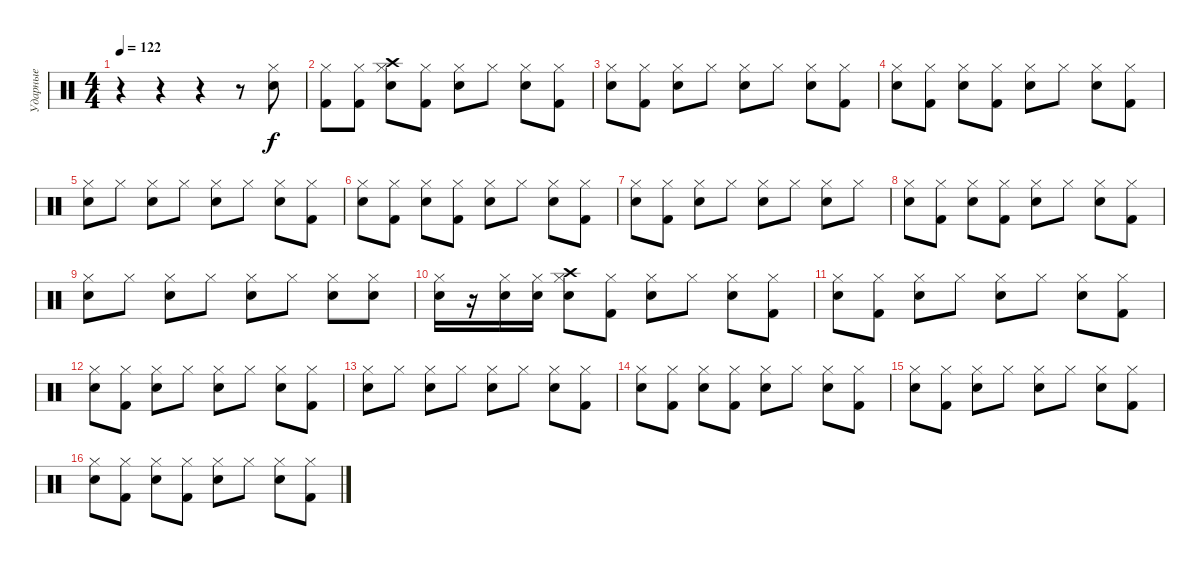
\track ("Ударные" "Ударные") {instrument percussion}
\staff {score}
\articulation defaults
\ts (4 4)
\tempo 122
\clef neutral
\ks c
r.4{dy f} r.4 r.4 r.8 ("Hi-Hat (closed)" "Snare (hit) 2").8 |
("Hi-Hat (closed)" "Kick (hit) 2").8 ("Hi-Hat (closed)" "Kick (hit) 2").8 ("Crash high (hit)" "Hi-Hat (closed)" "Snare (hit) 2").8 ("Hi-Hat (closed)" "Kick (hit) 2").8 ("Hi-Hat (closed)" "Snare (hit) 2").8 "Hi-Hat (closed)".8 ("Hi-Hat (closed)" "Snare (hit) 2").8 ("Hi-Hat (closed)" "Kick (hit) 2").8 |
("Hi-Hat (closed)" "Snare (hit) 2").8 ("Hi-Hat (closed)" "Kick (hit) 2").8 ("Hi-Hat (closed)" "Snare (hit) 2").8 "Hi-Hat (closed)".8 ("Hi-Hat (closed)" "Snare (hit) 2").8 "Hi-Hat (closed)".8 ("Hi-Hat (closed)" "Snare (hit) 2").8 ("Hi-Hat (closed)" "Kick (hit) 2").8 |
("Hi-Hat (closed)" "Snare (hit) 2").8 ("Hi-Hat (closed)" "Kick (hit) 2").8 ("Hi-Hat (closed)" "Snare (hit) 2").8 ("Hi-Hat (closed)" "Kick (hit) 2").8 ("Hi-Hat (closed)" "Snare (hit) 2").8 "Hi-Hat (closed)".8 ("Hi-Hat (closed)" "Snare (hit) 2").8 ("Hi-Hat (closed)" "Kick (hit) 2").8 |
("Hi-Hat (closed)" "Snare (hit) 2").8 "Hi-Hat (closed)".8 ("Hi-Hat (closed)" "Snare (hit) 2").8 "Hi-Hat (closed)".8 ("Hi-Hat (closed)" "Snare (hit) 2").8 "Hi-Hat (closed)".8 ("Hi-Hat (closed)" "Snare (hit) 2").8 ("Hi-Hat (closed)" "Kick (hit) 2").8 |
("Hi-Hat (closed)" "Snare (hit) 2").8 ("Hi-Hat (closed)" "Kick (hit) 2").8 ("Hi-Hat (closed)" "Snare (hit) 2").8 ("Hi-Hat (closed)" "Kick (hit) 2").8 ("Hi-Hat (closed)" "Snare (hit) 2").8 "Hi-Hat (closed)".8 ("Hi-Hat (closed)" "Snare (hit) 2").8 ("Hi-Hat (closed)" "Kick (hit) 2").8 |
("Hi-Hat (closed)" "Snare (hit) 2").8 ("Hi-Hat (closed)" "Kick (hit) 2").8 ("Hi-Hat (closed)" "Snare (hit) 2").8 "Hi-Hat (closed)".8 ("Hi-Hat (closed)" "Snare (hit) 2").8 "Hi-Hat (closed)".8 ("Hi-Hat (closed)" "Snare (hit) 2").8 "Hi-Hat (closed)".8 |
("Hi-Hat (closed)" "Snare (hit) 2").8 ("Hi-Hat (closed)" "Kick (hit) 2").8 ("Hi-Hat (closed)" "Snare (hit) 2").8 ("Hi-Hat (closed)" "Kick (hit) 2").8 ("Hi-Hat (closed)" "Snare (hit) 2").8 "Hi-Hat (closed)".8 ("Hi-Hat (closed)" "Snare (hit) 2").8 ("Hi-Hat (closed)" "Kick (hit) 2").8 |
("Hi-Hat (closed)" "Snare (hit) 2").8 "Hi-Hat (closed)".8 ("Hi-Hat (closed)" "Snare (hit) 2").8 "Hi-Hat (closed)".8 ("Hi-Hat (closed)" "Snare (hit) 2").8 "Hi-Hat (closed)".8 ("Hi-Hat (closed)" "Snare (hit) 2").8 ("Hi-Hat (closed)" "Snare (hit) 2").8 |
("Hi-Hat (closed)" "Snare (hit) 2").16 r.16 ("Hi-Hat (closed)" "Snare (hit) 2").16 ("Hi-Hat (closed)" "Snare (hit) 2").16 ("Crash high (hit)" "Hi-Hat (closed)" "Snare (hit) 2").8 ("Hi-Hat (closed)" "Kick (hit) 2").8 ("Hi-Hat (closed)" "Snare (hit) 2").8 "Hi-Hat (closed)".8 ("Hi-Hat (closed)" "Snare (hit) 2").8 ("Hi-Hat (closed)" "Kick (hit) 2").8 |
("Hi-Hat (closed)" "Snare (hit) 2").8 ("Hi-Hat (closed)" "Kick (hit) 2").8 ("Hi-Hat (closed)" "Snare (hit) 2").8 "Hi-Hat (closed)".8 ("Hi-Hat (closed)" "Snare (hit) 2").8 "Hi-Hat (closed)".8 ("Hi-Hat (closed)" "Snare (hit) 2").8 ("Hi-Hat (closed)" "Kick (hit) 2").8 |
("Hi-Hat (closed)" "Snare (hit) 2").8 ("Hi-Hat (closed)" "Kick (hit) 2").8 ("Hi-Hat (closed)" "Snare (hit) 2").8 "Hi-Hat (closed)".8 ("Hi-Hat (closed)" "Snare (hit) 2").8 "Hi-Hat (closed)".8 ("Hi-Hat (closed)" "Snare (hit) 2").8 ("Hi-Hat (closed)" "Kick (hit) 2").8 |
("Hi-Hat (closed)" "Snare (hit) 2").8 "Hi-Hat (closed)".8 ("Hi-Hat (closed)" "Snare (hit) 2").8 "Hi-Hat (closed)".8 ("Hi-Hat (closed)" "Snare (hit) 2").8 "Hi-Hat (closed)".8 ("Hi-Hat (closed)" "Snare (hit) 2").8 ("Hi-Hat (closed)" "Kick (hit) 2").8 |
("Hi-Hat (closed)" "Snare (hit) 2").8 ("Hi-Hat (closed)" "Kick (hit) 2").8 ("Hi-Hat (closed)" "Snare (hit) 2").8 ("Hi-Hat (closed)" "Kick (hit) 2").8 ("Hi-Hat (closed)" "Snare (hit) 2").8 "Hi-Hat (closed)".8 ("Hi-Hat (closed)" "Snare (hit) 2").8 ("Hi-Hat (closed)" "Kick (hit) 2").8 |
("Hi-Hat (closed)" "Snare (hit) 2").8 ("Hi-Hat (closed)" "Kick (hit) 2").8 ("Hi-Hat (closed)" "Snare (hit) 2").8 "Hi-Hat (closed)".8 ("Hi-Hat (closed)" "Snare (hit) 2").8 "Hi-Hat (closed)".8 ("Hi-Hat (closed)" "Snare (hit) 2").8 ("Hi-Hat (closed)" "Kick (hit) 2").8 |
("Hi-Hat (closed)" "Snare (hit) 2").8 ("Hi-Hat (closed)" "Kick (hit) 2").8 ("Hi-Hat (closed)" "Snare (hit) 2").8 ("Hi-Hat (closed)" "Kick (hit) 2").8 ("Hi-Hat (closed)" "Snare (hit) 2").8 "Hi-Hat (closed)".8 ("Hi-Hat (closed)" "Snare (hit) 2").8 ("Hi-Hat (closed)" "Kick (hit) 2").8
